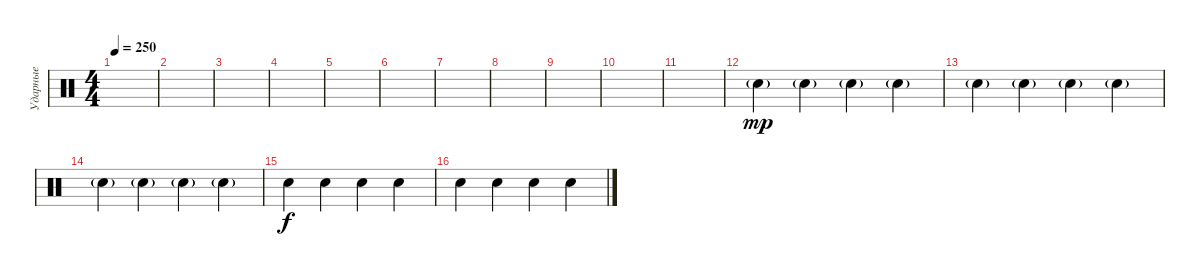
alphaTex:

\track ("Ударные" "Ударные") {instrument percussion}
\staff {score}
\articulation defaults
\ts (4 4)
\tempo 250
\clef neutral
\ks c
|
|
|
|
|
|
|
|
|
|
|
"Snare (hit) 2"{g}.4{dy mp} "Snare (hit) 2"{g}.4 "Snare (hit) 2"{g}.4 "Snare (hit) 2"{g}.4 |
"Snare (hit) 2"{g}.4 "Snare (hit) 2"{g}.4 "Snare (hit) 2"{g}.4 "Snare (hit) 2"{g}.4 |
"Snare (hit) 2"{g}.4 "Snare (hit) 2"{g}.4 "Snare (hit) 2"{g}.4 "Snare (hit) 2"{g}.4 |
"Snare (hit) 2".4{dy f} "Snare (hit) 2".4 "Snare (hit) 2".4 "Snare (hit) 2".4 |
"Snare (hit) 2".4 "Snare (hit) 2".4 "Snare (hit) 2".4 "Snare (hit) 2".4
